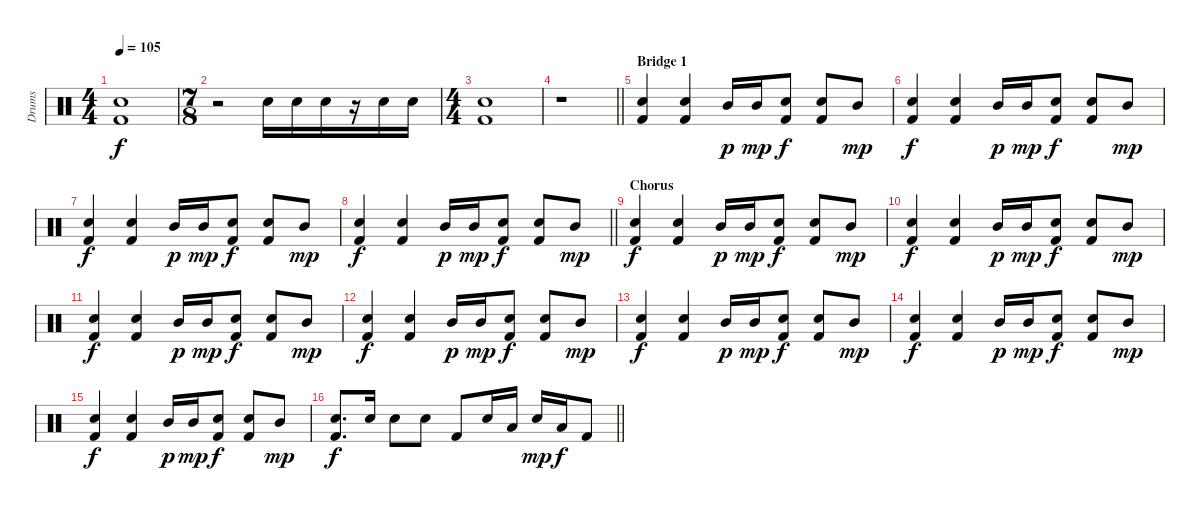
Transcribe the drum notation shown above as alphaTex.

\track ("Drums" "Drums") {instrument percussion}
\staff {score}
\articulation defaults
\ts (4 4)
\tempo 105
\clef neutral
\ks c
("Snare (hit) 2" "Kick (hit) 2").1{dy f} |
\ts (7 8)
r.2 "Snare (hit) 2".16 "Snare (hit) 2".16 "Snare (hit) 2".16 r.16 "Snare (hit) 2".16 "Snare (hit) 2".16 |
\ts (4 4)
("Snare (hit) 2" "Kick (hit) 2").1 |
\barLineRight lightlight
r.1 |
\section ("" "Bridge 1")
("Snare (hit) 2" "Kick (hit) 2").4 ("Snare (hit) 2" "Kick (hit) 2").4 "Mid Tom (hit)".16{dy p} "Mid Tom (hit)".16{dy mp} ("Snare (hit) 2" "Kick (hit) 2").8{dy f} ("Snare (hit) 2" "Kick (hit) 2").8 "Mid Tom (hit)".8{dy mp} |
("Snare (hit) 2" "Kick (hit) 2").4{dy f} ("Snare (hit) 2" "Kick (hit) 2").4 "Mid Tom (hit)".16{dy p} "Mid Tom (hit)".16{dy mp} ("Snare (hit) 2" "Kick (hit) 2").8{dy f} ("Snare (hit) 2" "Kick (hit) 2").8 "Mid Tom (hit)".8{dy mp} |
("Snare (hit) 2" "Kick (hit) 2").4{dy f} ("Snare (hit) 2" "Kick (hit) 2").4 "Mid Tom (hit)".16{dy p} "Mid Tom (hit)".16{dy mp} ("Snare (hit) 2" "Kick (hit) 2").8{dy f} ("Snare (hit) 2" "Kick (hit) 2").8 "Mid Tom (hit)".8{dy mp} |
\barLineRight lightlight
("Snare (hit) 2" "Kick (hit) 2").4{dy f} ("Snare (hit) 2" "Kick (hit) 2").4 "Mid Tom (hit)".16{dy p} "Mid Tom (hit)".16{dy mp} ("Snare (hit) 2" "Kick (hit) 2").8{dy f} ("Snare (hit) 2" "Kick (hit) 2").8 "Mid Tom (hit)".8{dy mp} |
\section ("" "Chorus")
("Snare (hit) 2" "Kick (hit) 2").4{dy f} ("Snare (hit) 2" "Kick (hit) 2").4 "Mid Tom (hit)".16{dy p} "Mid Tom (hit)".16{dy mp} ("Snare (hit) 2" "Kick (hit) 2").8{dy f} ("Snare (hit) 2" "Kick (hit) 2").8 "Mid Tom (hit)".8{dy mp} |
("Snare (hit) 2" "Kick (hit) 2").4{dy f} ("Snare (hit) 2" "Kick (hit) 2").4 "Mid Tom (hit)".16{dy p} "Mid Tom (hit)".16{dy mp} ("Snare (hit) 2" "Kick (hit) 2").8{dy f} ("Snare (hit) 2" "Kick (hit) 2").8 "Mid Tom (hit)".8{dy mp} |
("Snare (hit) 2" "Kick (hit) 2").4{dy f} ("Snare (hit) 2" "Kick (hit) 2").4 "Mid Tom (hit)".16{dy p} "Mid Tom (hit)".16{dy mp} ("Snare (hit) 2" "Kick (hit) 2").8{dy f} ("Snare (hit) 2" "Kick (hit) 2").8 "Mid Tom (hit)".8{dy mp} |
("Snare (hit) 2" "Kick (hit) 2").4{dy f} ("Snare (hit) 2" "Kick (hit) 2").4 "Mid Tom (hit)".16{dy p} "Mid Tom (hit)".16{dy mp} ("Snare (hit) 2" "Kick (hit) 2").8{dy f} ("Snare (hit) 2" "Kick (hit) 2").8 "Mid Tom (hit)".8{dy mp} |
("Snare (hit) 2" "Kick (hit) 2").4{dy f} ("Snare (hit) 2" "Kick (hit) 2").4 "Mid Tom (hit)".16{dy p} "Mid Tom (hit)".16{dy mp} ("Snare (hit) 2" "Kick (hit) 2").8{dy f} ("Snare (hit) 2" "Kick (hit) 2").8 "Mid Tom (hit)".8{dy mp} |
("Snare (hit) 2" "Kick (hit) 2").4{dy f} ("Snare (hit) 2" "Kick (hit) 2").4 "Mid Tom (hit)".16{dy p} "Mid Tom (hit)".16{dy mp} ("Snare (hit) 2" "Kick (hit) 2").8{dy f} ("Snare (hit) 2" "Kick (hit) 2").8 "Mid Tom (hit)".8{dy mp} |
("Snare (hit) 2" "Kick (hit) 2").4{dy f} ("Snare (hit) 2" "Kick (hit) 2").4 "Mid Tom (hit)".16{dy p} "Mid Tom (hit)".16{dy mp} ("Snare (hit) 2" "Kick (hit) 2").8{dy f} ("Snare (hit) 2" "Kick (hit) 2").8 "Mid Tom (hit)".8{dy mp} |
\barLineRight lightlight
("Snare (hit) 2" "Kick (hit) 2").8{d dy f} "Snare (hit) 2".16 "Snare (hit) 2".8 "Snare (hit) 2".8 "Kick (hit) 2".8 "Snare (hit) 2".16 "Low Floor Tom (hit)".16 "Snare (hit) 2".16{dy mp} "Low Floor Tom (hit)".16{dy f} "Kick (hit) 2".8
